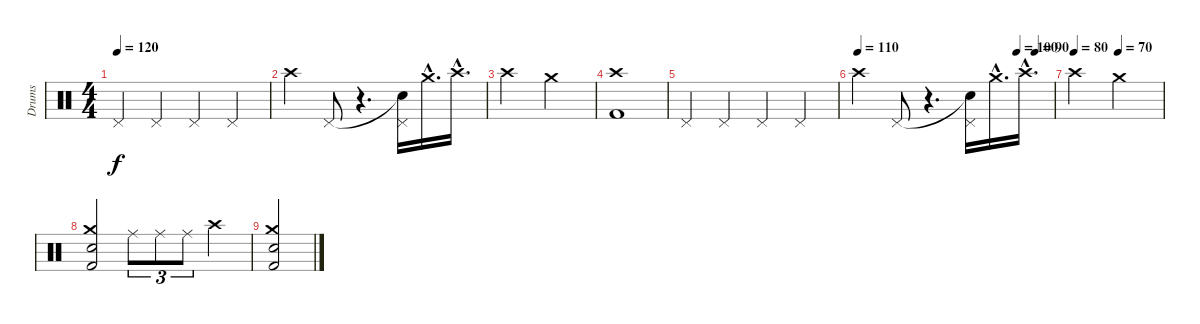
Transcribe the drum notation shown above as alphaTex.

\track ("Drums" "Drums") {instrument percussion}
\staff {score}
\articulation defaults
\ts (4 4)
\tempo 120
\clef neutral
\ks c "Pedal Hi-Hat (hit)".4{dy f} "Pedal Hi-Hat (hit)".4 "Pedal Hi-Hat (hit)".4 "Pedal Hi-Hat (hit)".4
|
"Crash high (hit)".4 "Pedal Hi-Hat (hit)".8 r.4{d} ("Snare (hit)"{t} "Pedal Hi-Hat (hit)").16 "Crash medium (hit)"{hac}.16{d} "Crash high (hit)"{hac}.16{d} |
"Crash high (hit)".2 "Crash medium (hit)".2 |
("Crash high (hit)" "Kick (hit) 2").1 |
"Pedal Hi-Hat (hit)".4 "Pedal Hi-Hat (hit)".4 "Pedal Hi-Hat (hit)".4 "Pedal Hi-Hat (hit)".4 |
\tempo 110
\tempo (100 0.8125)
\tempo (90 0.90625)
"Crash high (hit)".4 "Pedal Hi-Hat (hit)".8 r.4{d} ("Snare (hit)"{t} "Pedal Hi-Hat (hit)").16 "Crash medium (hit)"{hac}.16{d} "Crash high (hit)"{hac}.16{d} |
\tempo 80
\tempo (70 0.5)
"Crash high (hit)".2 "Crash medium (hit)".2 |
("Crash medium (hit)" "Snare (hit) 2" "Kick (hit) 2").2 "Ride (middle)".8{tu (3 2)} "Ride (middle)".8{tu (3 2)} "Ride (middle)".8{tu (3 2)} "Crash high (hit)".4 |
("Crash medium (hit)" "Snare (hit) 2" "Kick (hit) 2").2
